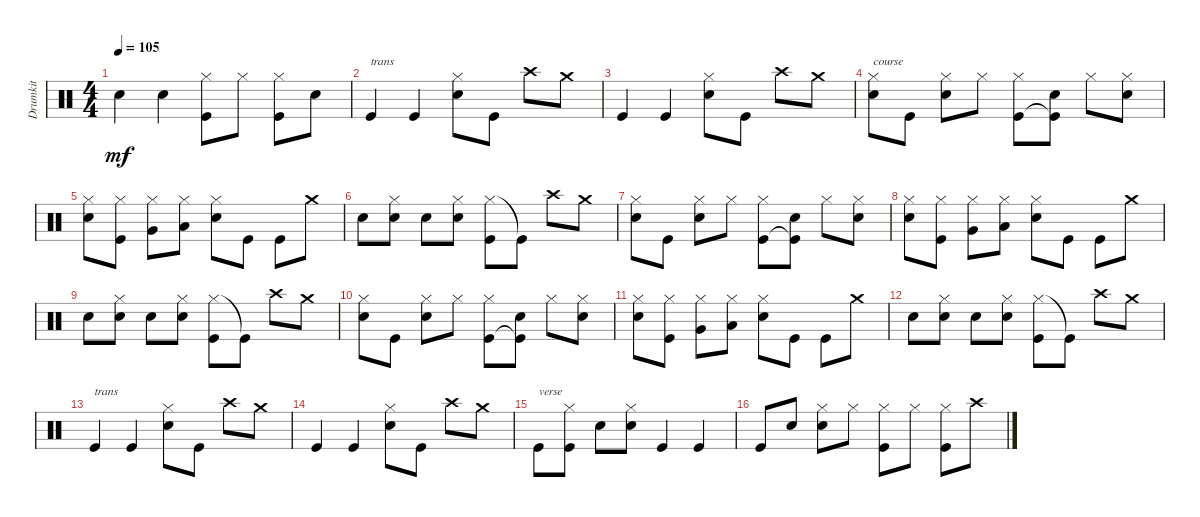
\track ("Drumkit" "Drumkit") {instrument percussion}
\staff {score}
\articulation defaults
\ts (4 4)
\tempo 105
\clef neutral
\ks c "Snare (hit) 2".4{dy mf} "Snare (hit) 2".4
("Kick (hit)" "Hi-Hat (closed)").8 "Hi-Hat (closed)".8 ("Kick (hit)" "Hi-Hat (closed)").8 "Snare (hit) 2".8 |
"Kick (hit)".4{txt "trans"} "Kick (hit)".4 ("Snare (hit) 2" "Hi-Hat (closed)").8 "Kick (hit)".8 "Crash high (hit)".8 "Crash medium (hit)".8 |
"Kick (hit)".4 "Kick (hit)".4 ("Snare (hit) 2" "Hi-Hat (closed)").8 "Kick (hit)".8 "Crash high (hit)".8 "Crash medium (hit)".8 |
("Snare (hit) 2" "Hi-Hat (closed)").8{txt "course"} "Kick (hit)".8 ("Hi-Hat (closed)" "Snare (hit) 2").8 "Hi-Hat (closed)".8 ("Kick (hit)" "Hi-Hat (closed)").8 ("Kick (hit)"{t} "Snare (hit) 2").8 "Hi-Hat (closed)".8 ("Hi-Hat (closed)" "Snare (hit) 2").8 |
("Hi-Hat (closed)" "Snare (hit) 2").8 ("Kick (hit)" "Hi-Hat (closed)").8 ("Very Low Tom (hit)" "Hi-Hat (closed)").8 ("Low Tom (hit)" "Hi-Hat (closed)").8 ("Snare (hit) 2" "Hi-Hat (closed)").8 "Kick (hit)".8 "Kick (hit)".8 "Crash medium (hit)".8 |
"Snare (hit) 2".8 ("Snare (hit) 2" "Hi-Hat (closed)").8 "Snare (hit) 2".8 ("Snare (hit) 2" "Hi-Hat (closed)").8 ("Hi-Hat (closed)" "Kick (hit)").8 "Kick (hit)"{t}.8 "Crash high (hit)".8 "Crash medium (hit)".8 |
("Snare (hit) 2" "Hi-Hat (closed)").8 "Kick (hit)".8 ("Hi-Hat (closed)" "Snare (hit) 2").8 "Hi-Hat (closed)".8 ("Kick (hit)" "Hi-Hat (closed)").8 ("Kick (hit)"{t} "Snare (hit) 2").8 "Hi-Hat (closed)".8 ("Hi-Hat (closed)" "Snare (hit) 2").8 |
("Hi-Hat (closed)" "Snare (hit) 2").8 ("Kick (hit)" "Hi-Hat (closed)").8 ("Very Low Tom (hit)" "Hi-Hat (closed)").8 ("Low Tom (hit)" "Hi-Hat (closed)").8 ("Snare (hit) 2" "Hi-Hat (closed)").8 "Kick (hit)".8 "Kick (hit)".8 "Crash medium (hit)".8 |
"Snare (hit) 2".8 ("Snare (hit) 2" "Hi-Hat (closed)").8 "Snare (hit) 2".8 ("Snare (hit) 2" "Hi-Hat (closed)").8 ("Hi-Hat (closed)" "Kick (hit)").8 "Kick (hit)"{t}.8 "Crash high (hit)".8 "Crash medium (hit)".8 |
("Snare (hit) 2" "Hi-Hat (closed)").8 "Kick (hit)".8 ("Hi-Hat (closed)" "Snare (hit) 2").8 "Hi-Hat (closed)".8 ("Kick (hit)" "Hi-Hat (closed)").8 ("Kick (hit)"{t} "Snare (hit) 2").8 "Hi-Hat (closed)".8 ("Hi-Hat (closed)" "Snare (hit) 2").8 |
("Hi-Hat (closed)" "Snare (hit) 2").8 ("Kick (hit)" "Hi-Hat (closed)").8 ("Very Low Tom (hit)" "Hi-Hat (closed)").8 ("Low Tom (hit)" "Hi-Hat (closed)").8 ("Snare (hit) 2" "Hi-Hat (closed)").8 "Kick (hit)".8 "Kick (hit)".8 "Crash medium (hit)".8 |
"Snare (hit) 2".8 ("Snare (hit) 2" "Hi-Hat (closed)").8 "Snare (hit) 2".8 ("Snare (hit) 2" "Hi-Hat (closed)").8 ("Hi-Hat (closed)" "Kick (hit)").8 "Kick (hit)"{t}.8 "Crash high (hit)".8 "Crash medium (hit)".8 |
"Kick (hit)".4{txt "trans"} "Kick (hit)".4 ("Snare (hit) 2" "Hi-Hat (closed)").8 "Kick (hit)".8 "Crash high (hit)".8 "Crash medium (hit)".8 |
"Kick (hit)".4 "Kick (hit)".4 ("Snare (hit) 2" "Hi-Hat (closed)").8 "Kick (hit)".8 "Crash high (hit)".8 "Crash medium (hit)".8 |
"Kick (hit)".8{txt "verse"} ("Kick (hit)" "Hi-Hat (closed)").8 "Snare (hit) 2".8 ("Snare (hit) 2" "Hi-Hat (closed)").8 "Kick (hit)".4 "Kick (hit)".4 |
"Kick (hit)".8 "Snare (hit) 2".8 ("Snare (hit) 2" "Hi-Hat (closed)").8 "Hi-Hat (closed)".8 ("Hi-Hat (closed)" "Kick (hit)").8 "Hi-Hat (closed)".8 ("Hi-Hat (closed)" "Kick (hit)").8 "Crash high (hit)".8
